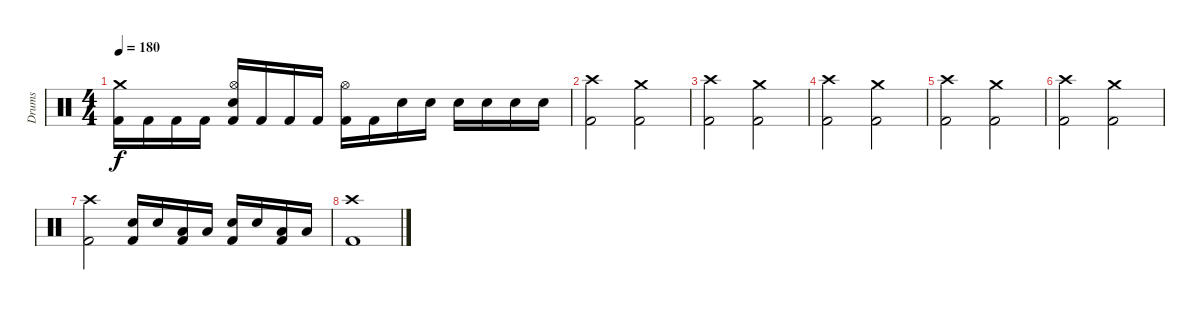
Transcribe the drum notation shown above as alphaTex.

\track ("Drums" "Drums") {instrument percussion}
\staff {score}
\articulation defaults
\ts (4 4)
\tempo 180
\clef neutral
\ks c
("Crash medium (hit)" "Kick (hit) 2").16{dy f} "Kick (hit) 2".16 "Kick (hit) 2".16 "Kick (hit) 2".16 ("Hi-Hat (open)" "Electric Snare (hit)" "Kick (hit) 2").16 "Kick (hit) 2".16 "Kick (hit) 2".16 "Kick (hit) 2".16 ("Hi-Hat (open)" "Kick (hit) 2").16 "Kick (hit) 2".16 "Electric Snare (hit)".16 "Electric Snare (hit)".16 "Electric Snare (hit)".16 "Electric Snare (hit)".16 "Electric Snare (hit)".16 "Electric Snare (hit)".16 |
("Crash high (hit)" "Kick (hit) 2").2 ("Crash medium (hit)" "Kick (hit) 2").2 |
("Crash high (hit)" "Kick (hit) 2").2 ("Crash medium (hit)" "Kick (hit) 2").2 |
("Crash high (hit)" "Kick (hit) 2").2 ("Crash medium (hit)" "Kick (hit) 2").2 |
("Crash high (hit)" "Kick (hit) 2").2 ("Crash medium (hit)" "Kick (hit) 2").2 |
("Crash high (hit)" "Kick (hit) 2").2 ("Crash medium (hit)" "Kick (hit) 2").2 |
("Crash high (hit)" "Kick (hit) 2").2 ("Electric Snare (hit)" "Kick (hit) 2").16 "Electric Snare (hit)".16 ("Low Tom (hit)" "Kick (hit) 2").16 "Low Tom (hit)".16 ("Electric Snare (hit)" "Kick (hit) 2").16 "Electric Snare (hit)".16 ("Low Tom (hit)" "Kick (hit) 2").16 "Low Tom (hit)".16 |
("Crash high (hit)" "Kick (hit) 2").1
